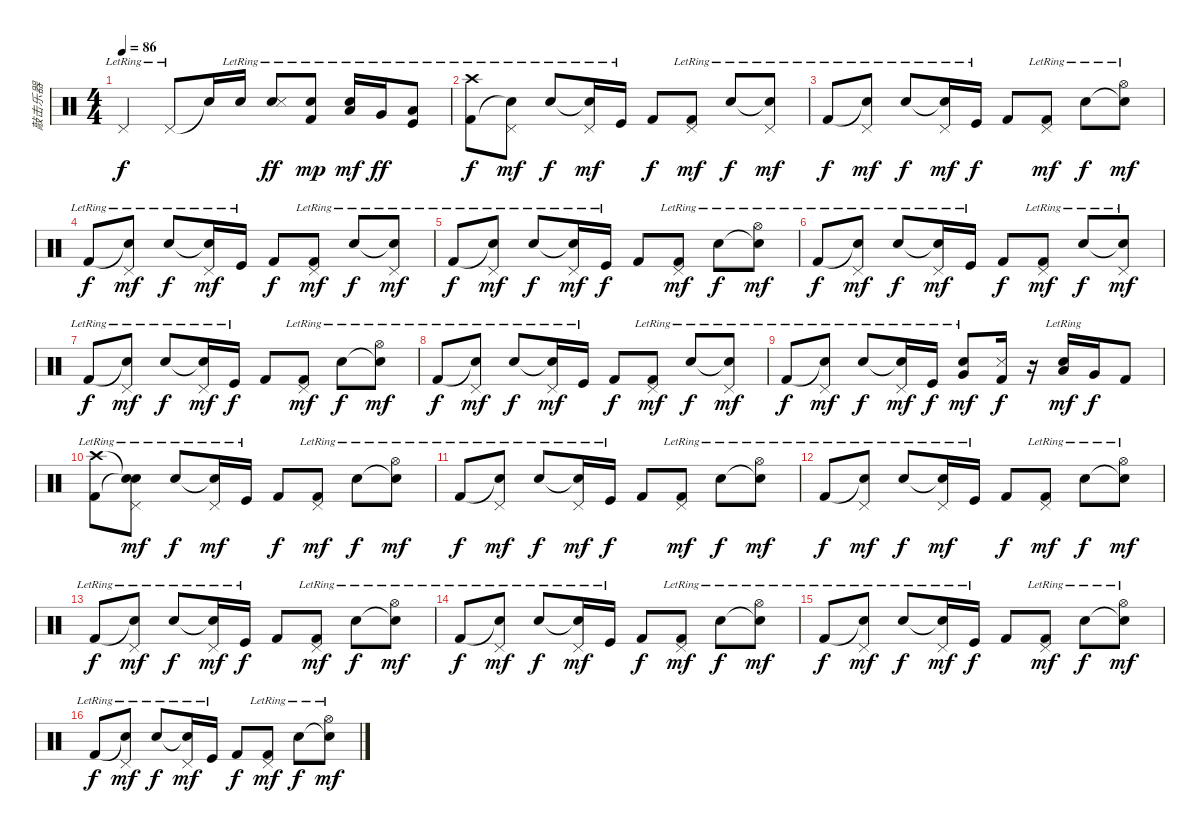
\track ("敲击乐器" "敲击乐器") {instrument percussion}
\staff {score}
\articulation defaults
\ts (4 4)
\tempo 86
\clef neutral
\ks c "Pedal Hi-Hat (hit)"{lr}.4{dy f} "Pedal Hi-Hat (hit)"{lr}.8 "Snare (hit)"{t}.16 "Electric Snare (hit)"{lr}.16
("Electric Snare (hit)"{lr} "Snare (side stick) 3").8{dy ff} ("Kick (hit) 2"{lr} "Electric Snare (hit)"{lr}).8{dy mp} ("Low Tom (hit)"{lr} "Electric Snare (hit)"{lr}).16{dy mf} "Very Low Tom (hit)"{lr}.16{dy ff} ("Low Floor Tom (hit)"{lr} "Kick (hit)"{lr}).8 |
("Kick (hit) 2"{lr} "Crash high (hit)"{lr}).8{dy f} ("Snare (hit)"{t} "Pedal Hi-Hat (hit)"{lr}).8{dy mf} "Electric Snare (hit)"{lr}.8{dy f} ("Snare (hit)"{t} "Pedal Hi-Hat (hit)"{lr}).16{dy mf} "Kick (hit)"{lr}.16 "Kick (hit) 2".8{dy f} ("Kick (hit) 2"{lr} "Pedal Hi-Hat (hit)"{lr}).8{dy mf} "Electric Snare (hit)"{lr}.8{dy f} ("Snare (hit)"{t} "Pedal Hi-Hat (hit)"{lr}).8{dy mf} |
"Kick (hit) 2"{lr}.8{dy f} ("Snare (hit)"{t} "Pedal Hi-Hat (hit)"{lr}).8{dy mf} "Electric Snare (hit)"{lr}.8{dy f} ("Snare (hit)"{t} "Pedal Hi-Hat (hit)"{lr}).16{dy mf} "Kick (hit)"{lr}.16{dy f} "Kick (hit) 2".8 ("Kick (hit) 2"{lr} "Pedal Hi-Hat (hit)"{lr}).8{dy mf} "Electric Snare (hit)"{lr}.8{dy f} ("Snare (hit)"{t} "Hi-Hat (open)"{lr}).8{dy mf} |
"Kick (hit) 2"{lr}.8{dy f} ("Snare (hit)"{t} "Pedal Hi-Hat (hit)"{lr}).8{dy mf} "Electric Snare (hit)"{lr}.8{dy f} ("Snare (hit)"{t} "Pedal Hi-Hat (hit)"{lr}).16{dy mf} "Kick (hit)"{lr}.16 "Kick (hit) 2".8{dy f} ("Kick (hit) 2"{lr} "Pedal Hi-Hat (hit)"{lr}).8{dy mf} "Electric Snare (hit)"{lr}.8{dy f} ("Snare (hit)"{t} "Pedal Hi-Hat (hit)"{lr}).8{dy mf} |
"Kick (hit) 2"{lr}.8{dy f} ("Snare (hit)"{t} "Pedal Hi-Hat (hit)"{lr}).8{dy mf} "Electric Snare (hit)"{lr}.8{dy f} ("Snare (hit)"{t} "Pedal Hi-Hat (hit)"{lr}).16{dy mf} "Kick (hit)"{lr}.16{dy f} "Kick (hit) 2".8 ("Kick (hit) 2"{lr} "Pedal Hi-Hat (hit)"{lr}).8{dy mf} "Electric Snare (hit)"{lr}.8{dy f} ("Snare (hit)"{t} "Hi-Hat (open)"{lr}).8{dy mf} |
"Kick (hit) 2"{lr}.8{dy f} ("Snare (hit)"{t} "Pedal Hi-Hat (hit)"{lr}).8{dy mf} "Electric Snare (hit)"{lr}.8{dy f} ("Snare (hit)"{t} "Pedal Hi-Hat (hit)"{lr}).16{dy mf} "Kick (hit)"{lr}.16 "Kick (hit) 2".8{dy f} ("Kick (hit) 2"{lr} "Pedal Hi-Hat (hit)"{lr}).8{dy mf} "Electric Snare (hit)"{lr}.8{dy f} ("Snare (hit)"{t} "Pedal Hi-Hat (hit)"{lr}).8{dy mf} |
"Kick (hit) 2"{lr}.8{dy f} ("Snare (hit)"{t} "Pedal Hi-Hat (hit)"{lr}).8{dy mf} "Electric Snare (hit)"{lr}.8{dy f} ("Snare (hit)"{t} "Pedal Hi-Hat (hit)"{lr}).16{dy mf} "Kick (hit)"{lr}.16{dy f} "Kick (hit) 2".8 ("Kick (hit) 2"{lr} "Pedal Hi-Hat (hit)"{lr}).8{dy mf} "Electric Snare (hit)"{lr}.8{dy f} ("Snare (hit)"{t} "Hi-Hat (open)"{lr}).8{dy mf} |
"Kick (hit) 2"{lr}.8{dy f} ("Snare (hit)"{t} "Pedal Hi-Hat (hit)"{lr}).8{dy mf} "Electric Snare (hit)"{lr}.8{dy f} ("Snare (hit)"{t} "Pedal Hi-Hat (hit)"{lr}).16{dy mf} "Kick (hit)"{lr}.16 "Kick (hit) 2".8{dy f} ("Kick (hit) 2"{lr} "Pedal Hi-Hat (hit)"{lr}).8{dy mf} "Electric Snare (hit)"{lr}.8{dy f} ("Snare (hit)"{t} "Pedal Hi-Hat (hit)"{lr}).8{dy mf} |
"Kick (hit) 2"{lr}.8{dy f} ("Snare (hit)"{t} "Pedal Hi-Hat (hit)"{lr}).8{dy mf} "Electric Snare (hit)"{lr}.8{dy f} ("Snare (hit)"{t} "Pedal Hi-Hat (hit)"{lr}).16{dy mf} "Kick (hit)"{lr}.16{dy f} ("Very Low Tom (hit)" "Electric Snare (hit)"{lr}).8{dy mf} ("Kick (hit) 2" "Metronome (hit)").16{dy f} r.16 ("Low Tom (hit)" "Electric Snare (hit)"{lr}).16{dy mf} "Very Low Tom (hit)".16{dy f} "Kick (hit) 2".8 |
("Kick (hit) 2"{lr} "Crash high (hit)"{lr}).8 ("Snare (hit)"{t} "Snare (hit)"{t} "Pedal Hi-Hat (hit)"{lr}).8{dy mf} "Electric Snare (hit)"{lr}.8{dy f} ("Snare (hit)"{t} "Pedal Hi-Hat (hit)"{lr}).16{dy mf} "Kick (hit)"{lr}.16 "Kick (hit) 2".8{dy f} ("Kick (hit) 2"{lr} "Pedal Hi-Hat (hit)"{lr}).8{dy mf} "Electric Snare (hit)"{lr}.8{dy f} ("Snare (hit)"{t} "Hi-Hat (open)"{lr}).8{dy mf} |
"Kick (hit) 2"{lr}.8{dy f} ("Snare (hit)"{t} "Pedal Hi-Hat (hit)"{lr}).8{dy mf} "Electric Snare (hit)"{lr}.8{dy f} ("Snare (hit)"{t} "Pedal Hi-Hat (hit)"{lr}).16{dy mf} "Kick (hit)"{lr}.16{dy f} "Kick (hit) 2".8 ("Kick (hit) 2"{lr} "Pedal Hi-Hat (hit)"{lr}).8{dy mf} "Electric Snare (hit)"{lr}.8{dy f} ("Snare (hit)"{t} "Hi-Hat (open)"{lr}).8{dy mf} |
"Kick (hit) 2"{lr}.8{dy f} ("Snare (hit)"{t} "Pedal Hi-Hat (hit)"{lr}).8{dy mf} "Electric Snare (hit)"{lr}.8{dy f} ("Snare (hit)"{t} "Pedal Hi-Hat (hit)"{lr}).16{dy mf} "Kick (hit)"{lr}.16 "Kick (hit) 2".8{dy f} ("Kick (hit) 2"{lr} "Pedal Hi-Hat (hit)"{lr}).8{dy mf} "Electric Snare (hit)"{lr}.8{dy f} ("Snare (hit)"{t} "Hi-Hat (open)"{lr}).8{dy mf} |
"Kick (hit) 2"{lr}.8{dy f} ("Snare (hit)"{t} "Pedal Hi-Hat (hit)"{lr}).8{dy mf} "Electric Snare (hit)"{lr}.8{dy f} ("Snare (hit)"{t} "Pedal Hi-Hat (hit)"{lr}).16{dy mf} "Kick (hit)"{lr}.16{dy f} "Kick (hit) 2".8 ("Kick (hit) 2"{lr} "Pedal Hi-Hat (hit)"{lr}).8{dy mf} "Electric Snare (hit)"{lr}.8{dy f} ("Snare (hit)"{t} "Hi-Hat (open)"{lr}).8{dy mf} |
"Kick (hit) 2"{lr}.8{dy f} ("Snare (hit)"{t} "Pedal Hi-Hat (hit)"{lr}).8{dy mf} "Electric Snare (hit)"{lr}.8{dy f} ("Snare (hit)"{t} "Pedal Hi-Hat (hit)"{lr}).16{dy mf} "Kick (hit)"{lr}.16 "Kick (hit) 2".8{dy f} ("Kick (hit) 2"{lr} "Pedal Hi-Hat (hit)"{lr}).8{dy mf} "Electric Snare (hit)"{lr}.8{dy f} ("Snare (hit)"{t} "Hi-Hat (open)"{lr}).8{dy mf} |
"Kick (hit) 2"{lr}.8{dy f} ("Snare (hit)"{t} "Pedal Hi-Hat (hit)"{lr}).8{dy mf} "Electric Snare (hit)"{lr}.8{dy f} ("Snare (hit)"{t} "Pedal Hi-Hat (hit)"{lr}).16{dy mf} "Kick (hit)"{lr}.16{dy f} "Kick (hit) 2".8 ("Kick (hit) 2"{lr} "Pedal Hi-Hat (hit)"{lr}).8{dy mf} "Electric Snare (hit)"{lr}.8{dy f} ("Snare (hit)"{t} "Hi-Hat (open)"{lr}).8{dy mf} |
"Kick (hit) 2"{lr}.8{dy f} ("Snare (hit)"{t} "Pedal Hi-Hat (hit)"{lr}).8{dy mf} "Electric Snare (hit)"{lr}.8{dy f} ("Snare (hit)"{t} "Pedal Hi-Hat (hit)"{lr}).16{dy mf} "Kick (hit)"{lr}.16 "Kick (hit) 2".8{dy f} ("Kick (hit) 2"{lr} "Pedal Hi-Hat (hit)"{lr}).8{dy mf} "Electric Snare (hit)"{lr}.8{dy f} ("Snare (hit)"{t} "Hi-Hat (open)"{lr}).8{dy mf}
